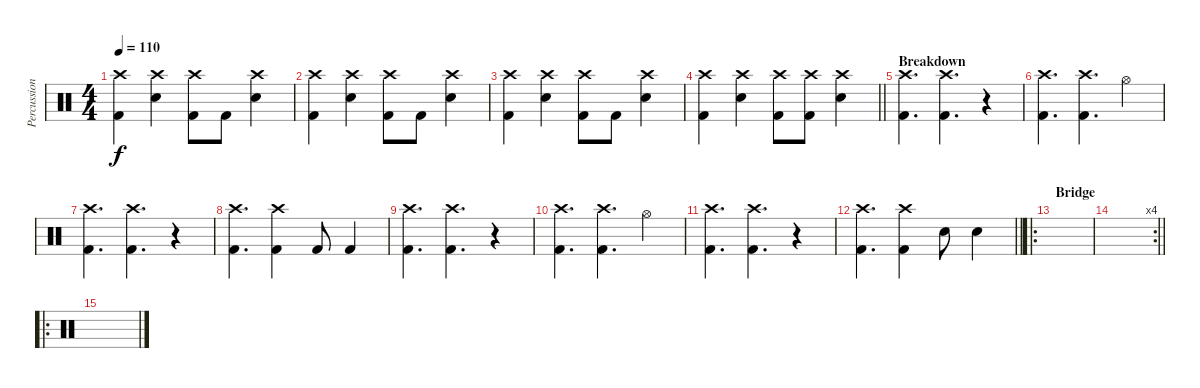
\track ("Percussion" "Percussion") {instrument percussion}
\staff {score}
\articulation defaults
\ts (4 4)
\tempo 110
\clef neutral
\ks c
("Crash high (hit)" "Kick (hit) 2").4{dy f} ("Crash high (hit)" "Electric Snare (hit)").4 ("Crash high (hit)" "Kick (hit) 2").8 "Kick (hit) 2".8 ("Crash high (hit)" "Electric Snare (hit)").4 |
("Crash high (hit)" "Kick (hit) 2").4 ("Crash high (hit)" "Electric Snare (hit)").4 ("Crash high (hit)" "Kick (hit) 2").8 "Kick (hit) 2".8 ("Crash high (hit)" "Electric Snare (hit)").4 |
("Crash high (hit)" "Kick (hit) 2").4 ("Crash high (hit)" "Electric Snare (hit)").4 ("Crash high (hit)" "Kick (hit) 2").8 "Kick (hit) 2".8 ("Crash high (hit)" "Electric Snare (hit)").4 |
\barLineRight lightlight
("Crash high (hit)" "Kick (hit) 2").4 ("Crash high (hit)" "Electric Snare (hit)").4 ("Crash high (hit)" "Kick (hit) 2").8 ("Crash high (hit)" "Kick (hit) 2").8 ("Crash high (hit)" "Electric Snare (hit)").4 |
\section ("" "Breakdown")
("Crash high (hit)" "Kick (hit) 2").4{d} ("Crash high (hit)" "Kick (hit) 2").4{d} r.4 |
("Crash high (hit)" "Kick (hit) 2").4{d} ("Crash high (hit)" "Kick (hit) 2").4{d} "Hi-Hat (open)".4 |
("Crash high (hit)" "Kick (hit) 2").4{d} ("Crash high (hit)" "Kick (hit) 2").4{d} r.4 |
("Crash high (hit)" "Kick (hit) 2").4{d} ("Crash high (hit)" "Kick (hit) 2").4 "Kick (hit) 2".8 "Kick (hit) 2".4 |
("Crash high (hit)" "Kick (hit) 2").4{d} ("Crash high (hit)" "Kick (hit) 2").4{d} r.4 |
("Crash high (hit)" "Kick (hit) 2").4{d} ("Crash high (hit)" "Kick (hit) 2").4{d} "Hi-Hat (open)".4 |
("Crash high (hit)" "Kick (hit) 2").4{d} ("Crash high (hit)" "Kick (hit) 2").4{d} r.4 |
\barLineRight lightlight
("Crash high (hit)" "Kick (hit) 2").4{d} ("Crash high (hit)" "Kick (hit) 2").4 "Electric Snare (hit)".8 "Electric Snare (hit)".4 |
\ro
\section ("" "Bridge")
|
\rc 4
\barLineRight lightlight
|
\ro
